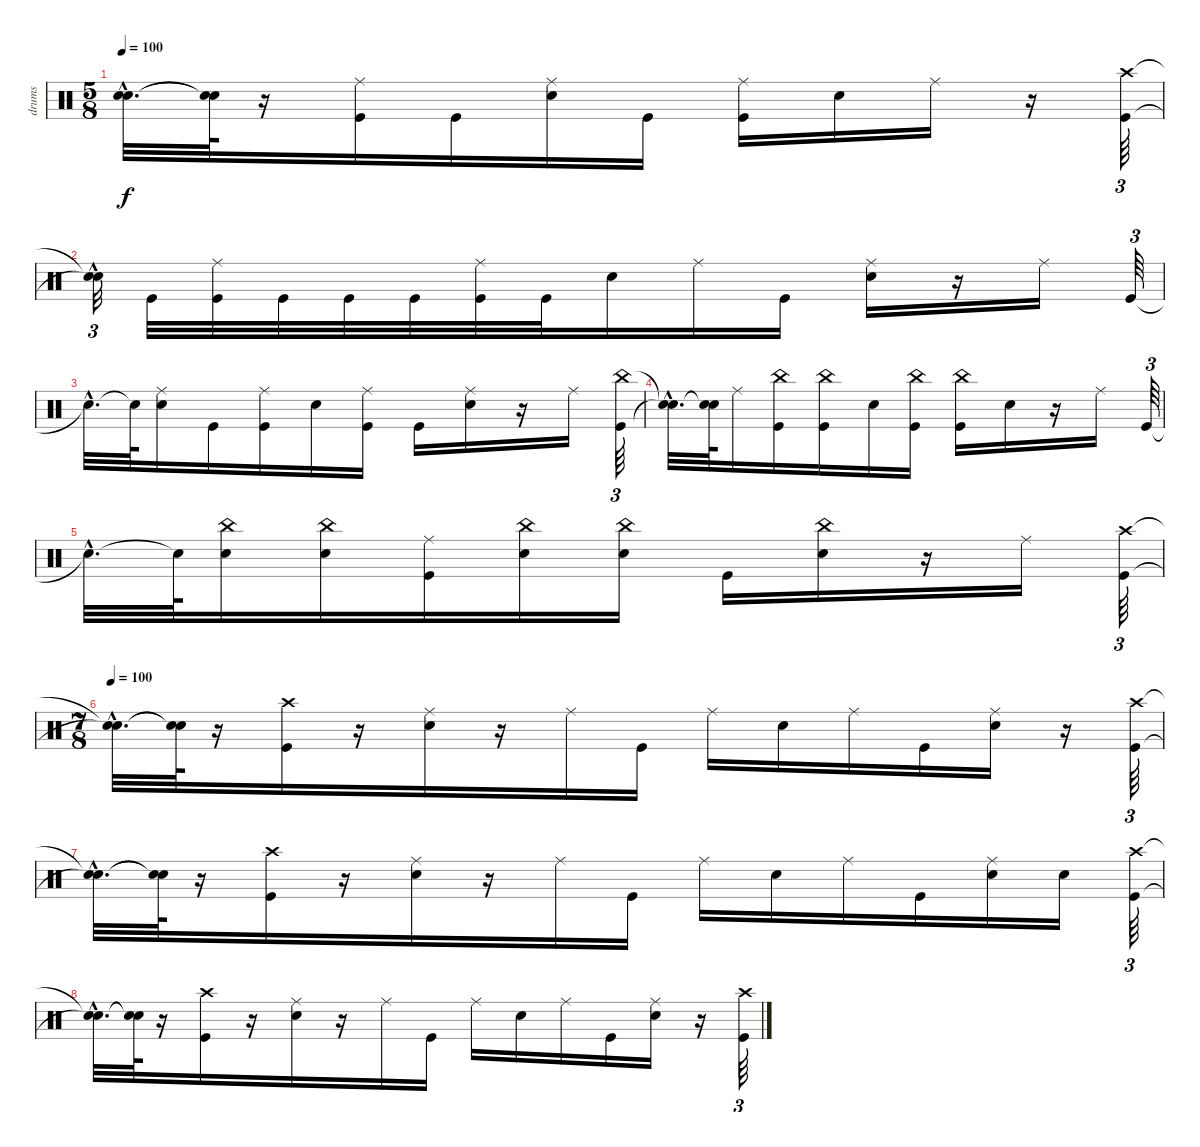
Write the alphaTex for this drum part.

\track ("drums" "drums") {instrument percussion}
\staff {score}
\articulation defaults
\ts (5 8)
\tempo 100
\clef neutral
\ks c
("Snare (hit)"{hac t} "Snare (hit)"{hac t}).32{d dy f} ("Snare (hit)"{t} "Snare (hit)"{t}).64 r.16 ("Ride (middle)" "Kick (hit)").16 "Kick (hit)".16 ("Electric Snare (hit)" "Ride (middle)").16 "Kick (hit)".16 ("Kick (hit)" "Ride (middle)").16 "Electric Snare (hit)".16 "Ride (middle)".16 r.16 ("Kick (hit)" "Crash high (hit)").64{tu (3 2)} |
("Snare (hit)"{t} "Snare (hit)"{hac t}).32{tu (3 2)} "Kick (hit)".32 ("Kick (hit)" "Ride (middle)").32 "Kick (hit)".32 "Kick (hit)".32 "Kick (hit)".32 ("Kick (hit)" "Ride (middle)").32 "Kick (hit)".32 "Electric Snare (hit)".16 "Ride (middle)".16 "Kick (hit)".16 ("Ride (middle)" "Electric Snare (hit)").16 r.16 "Ride (middle)".16 "Kick (hit)".64{tu (3 2)} |
"Snare (hit)"{hac t}.32{d} "Snare (hit)"{t}.64 ("Snare (hit) 2" "Ride (middle)").16 "Kick (hit)".16 ("Ride (middle)" "Kick (hit)").16 "Electric Snare (hit)".16 ("Kick (hit)" "Ride (middle)").16 "Kick (hit)".16 ("Ride (middle)" "Electric Snare (hit)").16 r.16 "Ride (middle)".16 ("China (hit)" "Kick (hit)").64{tu (3 2)} |
("Snare (hit)"{hac t} "Snare (hit)"{hac t}).32{d} ("Snare (hit)"{t} "Snare (hit)"{t}).64 "Ride (middle)".16 ("China (hit)" "Kick (hit)").16 ("China (hit)" "Kick (hit)").16 "Electric Snare (hit)".16 ("China (hit)" "Kick (hit)").16 ("China (hit)" "Kick (hit)").16 "Electric Snare (hit)".16 r.16 "Ride (middle)".16 "Kick (hit)".64{tu (3 2)} |
"Snare (hit)"{hac t}.32{d} "Snare (hit)"{t}.64 ("Electric Snare (hit)" "China (hit)").16 ("China (hit)" "Electric Snare (hit)").16 ("Kick (hit)" "Ride (middle)").16 ("China (hit)" "Electric Snare (hit)").16 ("China (hit)" "Electric Snare (hit)").16 "Kick (hit)".16 ("China (hit)" "Electric Snare (hit)").16 r.16 "Ride (middle)".16 ("Crash high (hit)" "Kick (hit)").64{tu (3 2)} |
\ts (7 8)
\tempo 100
("Snare (hit)"{hac t} "Snare (hit)"{hac t}).32{d} ("Snare (hit)"{t} "Snare (hit)"{t}).64 r.16 ("Kick (hit)" "Crash high (hit)").16 r.16 ("Electric Snare (hit)" "Ride (middle)").16 r.16 "Ride (middle)".16 "Kick (hit)".16 "Ride (middle)".16 "Electric Snare (hit)".16 "Ride (middle)".16 "Kick (hit)".16 ("Electric Snare (hit)" "Ride (middle)").16 r.16 ("Crash high (hit)" "Kick (hit)").64{tu (3 2)} |
("Snare (hit)"{hac t} "Snare (hit)"{hac t}).32{d} ("Snare (hit)"{t} "Snare (hit)"{t}).64 r.16 ("Kick (hit)" "Crash high (hit)").16 r.16 ("Electric Snare (hit)" "Ride (middle)").16 r.16 "Ride (middle)".16 "Kick (hit)".16 "Ride (middle)".16 "Electric Snare (hit)".16 "Ride (middle)".16 "Kick (hit)".16 ("Electric Snare (hit)" "Ride (middle)").16 "Electric Snare (hit)".16 ("Crash high (hit)" "Kick (hit)").64{tu (3 2)} |
("Snare (hit)"{hac t} "Snare (hit)"{hac t}).32{d} ("Snare (hit)"{t} "Snare (hit)"{t}).64 r.16 ("Kick (hit)" "Crash high (hit)").16 r.16 ("Electric Snare (hit)" "Ride (middle)").16 r.16 "Ride (middle)".16 "Kick (hit)".16 "Ride (middle)".16 "Electric Snare (hit)".16 "Ride (middle)".16 "Kick (hit)".16 ("Electric Snare (hit)" "Ride (middle)").16 r.16 ("Crash high (hit)" "Kick (hit)").64{tu (3 2)}
